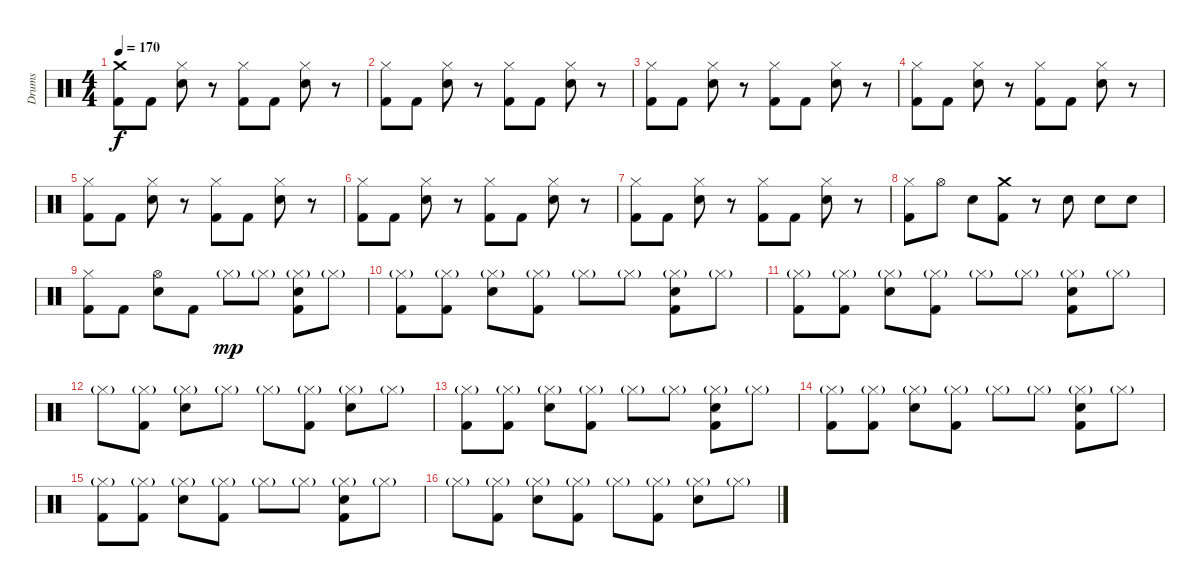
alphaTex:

\track ("Drums" "Drums") {instrument percussion}
\staff {score}
\articulation defaults
\ts (4 4)
\tempo 170
\clef neutral
\ks c
("Crash medium (hit)" "Kick (hit) 2").8{dy f} "Kick (hit) 2".8 ("Hi-Hat (closed)" "Electric Snare (hit)").8 r.8 ("Hi-Hat (closed)" "Kick (hit) 2").8 "Kick (hit) 2".8 ("Hi-Hat (closed)" "Electric Snare (hit)").8 r.8 |
("Hi-Hat (closed)" "Kick (hit) 2").8 "Kick (hit) 2".8 ("Hi-Hat (closed)" "Electric Snare (hit)").8 r.8 ("Hi-Hat (closed)" "Kick (hit) 2").8 "Kick (hit) 2".8 ("Hi-Hat (closed)" "Electric Snare (hit)").8 r.8 |
("Hi-Hat (closed)" "Kick (hit) 2").8 "Kick (hit) 2".8 ("Hi-Hat (closed)" "Electric Snare (hit)").8 r.8 ("Hi-Hat (closed)" "Kick (hit) 2").8 "Kick (hit) 2".8 ("Hi-Hat (closed)" "Electric Snare (hit)").8 r.8 |
("Hi-Hat (closed)" "Kick (hit) 2").8 "Kick (hit) 2".8 ("Hi-Hat (closed)" "Electric Snare (hit)").8 r.8 ("Hi-Hat (closed)" "Kick (hit) 2").8 "Kick (hit) 2".8 ("Hi-Hat (closed)" "Electric Snare (hit)").8 r.8 |
("Hi-Hat (closed)" "Kick (hit) 2").8 "Kick (hit) 2".8 ("Hi-Hat (closed)" "Electric Snare (hit)").8 r.8 ("Hi-Hat (closed)" "Kick (hit) 2").8 "Kick (hit) 2".8 ("Hi-Hat (closed)" "Electric Snare (hit)").8 r.8 |
("Hi-Hat (closed)" "Kick (hit) 2").8 "Kick (hit) 2".8 ("Hi-Hat (closed)" "Electric Snare (hit)").8 r.8 ("Hi-Hat (closed)" "Kick (hit) 2").8 "Kick (hit) 2".8 ("Hi-Hat (closed)" "Electric Snare (hit)").8 r.8 |
("Hi-Hat (closed)" "Kick (hit) 2").8 "Kick (hit) 2".8 ("Hi-Hat (closed)" "Electric Snare (hit)").8 r.8 ("Hi-Hat (closed)" "Kick (hit) 2").8 "Kick (hit) 2".8 ("Hi-Hat (closed)" "Electric Snare (hit)").8 r.8 |
("Hi-Hat (closed)" "Kick (hit) 2").8 "Hi-Hat (open)".8 "Electric Snare (hit)".8 ("Crash medium (hit)" "Kick (hit) 2").8 r.8 "Electric Snare (hit)".8 "Electric Snare (hit)".8 "Electric Snare (hit)".8 |
("Hi-Hat (closed)" "Kick (hit) 2").8 "Kick (hit) 2".8 ("Hi-Hat (open)" "Electric Snare (hit)").8 "Kick (hit) 2".8 "Hi-Hat (closed)"{g}.8{dy mp} "Hi-Hat (closed)"{g}.8 ("Hi-Hat (closed)"{g} "Electric Snare (hit)" "Kick (hit) 2").8 "Hi-Hat (closed)"{g}.8 |
("Hi-Hat (closed)"{g} "Kick (hit) 2").8 ("Hi-Hat (closed)"{g} "Kick (hit) 2").8 ("Hi-Hat (closed)"{g} "Electric Snare (hit)").8 ("Hi-Hat (closed)"{g} "Kick (hit) 2").8 "Hi-Hat (closed)"{g}.8 "Hi-Hat (closed)"{g}.8 ("Hi-Hat (closed)"{g} "Electric Snare (hit)" "Kick (hit) 2").8 "Hi-Hat (closed)"{g}.8 |
("Hi-Hat (closed)"{g} "Kick (hit) 2").8 ("Hi-Hat (closed)"{g} "Kick (hit) 2").8 ("Hi-Hat (closed)"{g} "Electric Snare (hit)").8 ("Hi-Hat (closed)"{g} "Kick (hit) 2").8 "Hi-Hat (closed)"{g}.8 "Hi-Hat (closed)"{g}.8 ("Hi-Hat (closed)"{g} "Electric Snare (hit)" "Kick (hit) 2").8 "Hi-Hat (closed)"{g}.8 |
"Hi-Hat (closed)"{g}.8 ("Hi-Hat (closed)"{g} "Kick (hit) 2").8 ("Hi-Hat (closed)"{g} "Electric Snare (hit)").8 "Hi-Hat (closed)"{g}.8 "Hi-Hat (closed)"{g}.8 ("Hi-Hat (closed)"{g} "Kick (hit) 2").8 ("Hi-Hat (closed)"{g} "Electric Snare (hit)").8 "Hi-Hat (closed)"{g}.8 |
("Hi-Hat (closed)"{g} "Kick (hit) 2").8 ("Hi-Hat (closed)"{g} "Kick (hit) 2").8 ("Hi-Hat (closed)"{g} "Electric Snare (hit)").8 ("Hi-Hat (closed)"{g} "Kick (hit) 2").8 "Hi-Hat (closed)"{g}.8 "Hi-Hat (closed)"{g}.8 ("Hi-Hat (closed)"{g} "Electric Snare (hit)" "Kick (hit) 2").8 "Hi-Hat (closed)"{g}.8 |
("Hi-Hat (closed)"{g} "Kick (hit) 2").8 ("Hi-Hat (closed)"{g} "Kick (hit) 2").8 ("Hi-Hat (closed)"{g} "Electric Snare (hit)").8 ("Hi-Hat (closed)"{g} "Kick (hit) 2").8 "Hi-Hat (closed)"{g}.8 "Hi-Hat (closed)"{g}.8 ("Hi-Hat (closed)"{g} "Electric Snare (hit)" "Kick (hit) 2").8 "Hi-Hat (closed)"{g}.8 |
("Hi-Hat (closed)"{g} "Kick (hit) 2").8 ("Hi-Hat (closed)"{g} "Kick (hit) 2").8 ("Hi-Hat (closed)"{g} "Electric Snare (hit)").8 ("Hi-Hat (closed)"{g} "Kick (hit) 2").8 "Hi-Hat (closed)"{g}.8 "Hi-Hat (closed)"{g}.8 ("Hi-Hat (closed)"{g} "Electric Snare (hit)" "Kick (hit) 2").8 "Hi-Hat (closed)"{g}.8 |
"Hi-Hat (closed)"{g}.8 ("Hi-Hat (closed)"{g} "Kick (hit) 2").8 ("Hi-Hat (closed)"{g} "Electric Snare (hit)").8 ("Hi-Hat (closed)"{g} "Kick (hit) 2").8 "Hi-Hat (closed)"{g}.8 ("Hi-Hat (closed)"{g} "Kick (hit) 2").8 ("Hi-Hat (closed)"{g} "Electric Snare (hit)").8 "Hi-Hat (closed)"{g}.8
